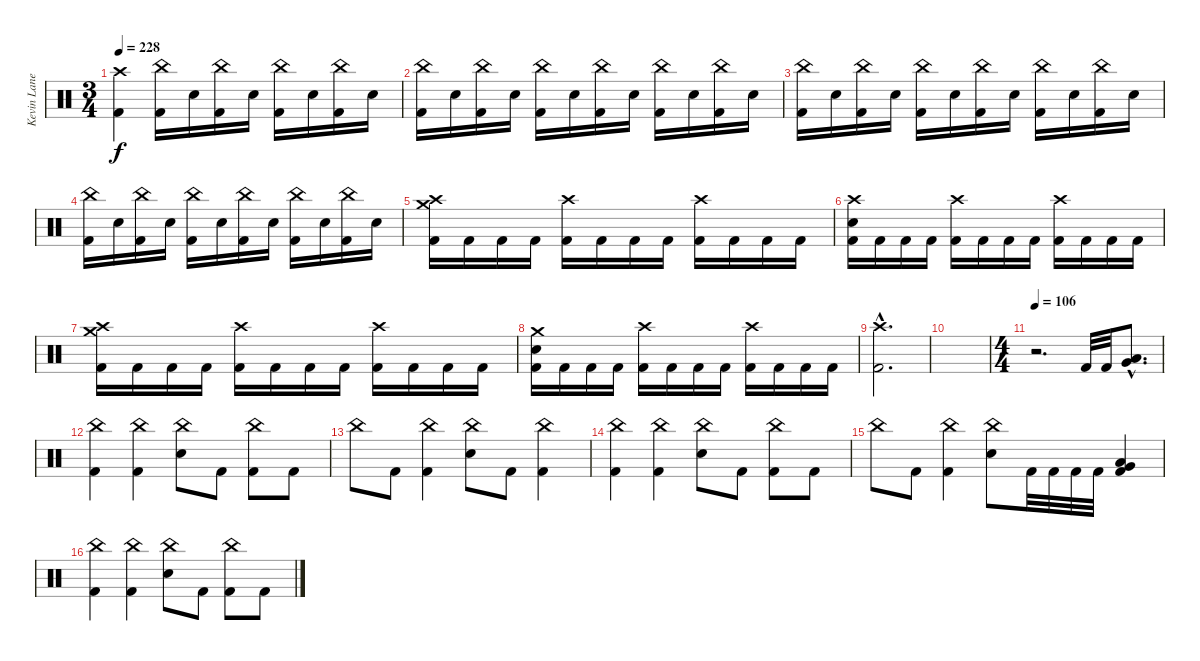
\track ("Kevin Lane (Drums)" "Kevin Lane") {instrument percussion}
\staff {score}
\articulation defaults
\ts (3 4)
\tempo 228
\clef neutral
\ks c
("Crash high (hit)" "Kick (hit) 2").4{dy f} ("China (hit)" "Kick (hit) 2").16 "Snare (hit) 2".16 ("China (hit)" "Kick (hit) 2").16 "Snare (hit) 2".16 ("China (hit)" "Kick (hit) 2").16 "Snare (hit) 2".16 ("China (hit)" "Kick (hit) 2").16 "Snare (hit) 2".16 |
("China (hit)" "Kick (hit) 2").16 "Snare (hit) 2".16 ("China (hit)" "Kick (hit) 2").16 "Snare (hit) 2".16 ("China (hit)" "Kick (hit) 2").16 "Snare (hit) 2".16 ("China (hit)" "Kick (hit) 2").16 "Snare (hit) 2".16 ("China (hit)" "Kick (hit) 2").16 "Snare (hit) 2".16 ("China (hit)" "Kick (hit) 2").16 "Snare (hit) 2".16 |
("China (hit)" "Kick (hit) 2").16 "Snare (hit) 2".16 ("China (hit)" "Kick (hit) 2").16 "Snare (hit) 2".16 ("China (hit)" "Kick (hit) 2").16 "Snare (hit) 2".16 ("China (hit)" "Kick (hit) 2").16 "Snare (hit) 2".16 ("China (hit)" "Kick (hit) 2").16 "Snare (hit) 2".16 ("China (hit)" "Kick (hit) 2").16 "Snare (hit) 2".16 |
("China (hit)" "Kick (hit) 2").16 "Snare (hit) 2".16 ("China (hit)" "Kick (hit) 2").16 "Snare (hit) 2".16 ("China (hit)" "Kick (hit) 2").16 "Snare (hit) 2".16 ("China (hit)" "Kick (hit) 2").16 "Snare (hit) 2".16 ("China (hit)" "Kick (hit) 2").16 "Snare (hit) 2".16 ("China (hit)" "Kick (hit) 2").16 "Snare (hit) 2".16 |
("Crash medium (hit)" "Crash high (hit)" "Kick (hit) 2").16 "Kick (hit) 2".16 "Kick (hit) 2".16 "Kick (hit) 2".16 ("Crash high (hit)" "Kick (hit) 2").16 "Kick (hit) 2".16 "Kick (hit) 2".16 "Kick (hit) 2".16 ("Crash high (hit)" "Kick (hit) 2").16 "Kick (hit) 2".16 "Kick (hit) 2".16 "Kick (hit) 2".16 |
("Crash high (hit)" "Snare (hit) 2" "Kick (hit) 2").16 "Kick (hit) 2".16 "Kick (hit) 2".16 "Kick (hit) 2".16 ("Crash high (hit)" "Kick (hit) 2").16 "Kick (hit) 2".16 "Kick (hit) 2".16 "Kick (hit) 2".16 ("Crash high (hit)" "Kick (hit) 2").16 "Kick (hit) 2".16 "Kick (hit) 2".16 "Kick (hit) 2".16 |
("Crash medium (hit)" "Crash high (hit)" "Kick (hit) 2").16 "Kick (hit) 2".16 "Kick (hit) 2".16 "Kick (hit) 2".16 ("Crash high (hit)" "Kick (hit) 2").16 "Kick (hit) 2".16 "Kick (hit) 2".16 "Kick (hit) 2".16 ("Crash high (hit)" "Kick (hit) 2").16 "Kick (hit) 2".16 "Kick (hit) 2".16 "Kick (hit) 2".16 |
("Snare (hit) 2" "Crash medium (hit)" "Kick (hit) 2").16 "Kick (hit) 2".16 "Kick (hit) 2".16 "Kick (hit) 2".16 ("Crash high (hit)" "Kick (hit) 2").16 "Kick (hit) 2".16 "Kick (hit) 2".16 "Kick (hit) 2".16 ("Crash high (hit)" "Kick (hit) 2").16 "Kick (hit) 2".16 "Kick (hit) 2".16 "Kick (hit) 2".16 |
("Crash high (hit)"{hac} "Kick (hit) 2"{hac}).2{d} |
|
\ts (4 4)
\tempo 106
r.2{d} "Kick (hit) 2".32 "Kick (hit) 2".32 ("Low Floor Tom (hit)"{hac} "Very Low Tom (hit)"{hac}).8{d} |
("China (hit)" "Kick (hit) 2").4 ("China (hit)" "Kick (hit) 2").4 ("China (hit)" "Snare (hit) 2").8 "Kick (hit) 2".8 ("China (hit)" "Kick (hit) 2").8 "Kick (hit) 2".8 |
"China (hit)".8 "Kick (hit) 2".8 ("China (hit)" "Kick (hit) 2").4 ("China (hit)" "Snare (hit) 2").8 "Kick (hit) 2".8 ("China (hit)" "Kick (hit) 2").4 |
("China (hit)" "Kick (hit) 2").4 ("China (hit)" "Kick (hit) 2").4 ("China (hit)" "Snare (hit) 2").8 "Kick (hit) 2".8 ("China (hit)" "Kick (hit) 2").8 "Kick (hit) 2".8 |
"China (hit)".8 "Kick (hit) 2".8 ("China (hit)" "Kick (hit) 2").4 ("China (hit)" "Snare (hit) 2").8 "Kick (hit) 2".32 "Kick (hit) 2".32 "Kick (hit) 2".32 "Kick (hit) 2".32 ("Low Floor Tom (hit)" "Very Low Tom (hit)" "Kick (hit) 2").4 |
("China (hit)" "Kick (hit) 2").4 ("China (hit)" "Kick (hit) 2").4 ("China (hit)" "Snare (hit) 2").8 "Kick (hit) 2".8 ("China (hit)" "Kick (hit) 2").8 "Kick (hit) 2".8
